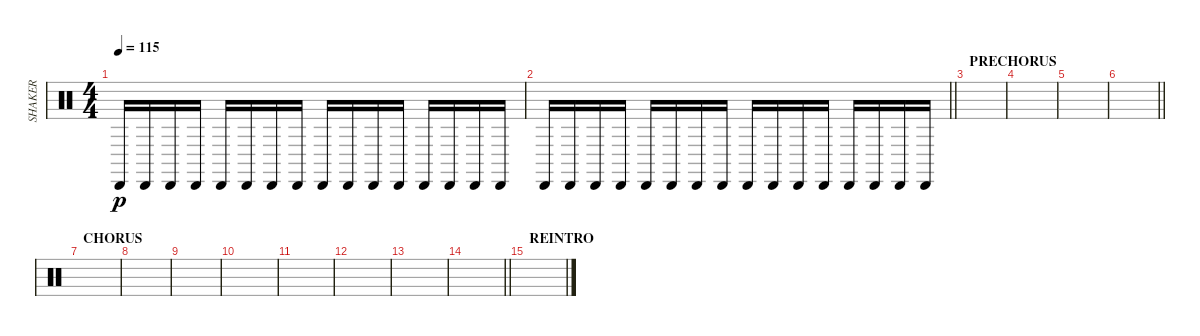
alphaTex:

\track ("SHAKER" "SHAKER") {instrument percussion}
\staff {score}
\articulation defaults
\ts (4 4)
\tempo 115
\clef neutral
\ks c "Cabasa (hit)".16{dy p} "Cabasa (hit)".16 "Cabasa (hit)".16 "Cabasa (hit)".16 "Cabasa (hit)".16 "Cabasa (hit)".16 "Cabasa (hit)".16 "Cabasa (hit)".16 "Cabasa (hit)".16 "Cabasa (hit)".16 "Cabasa (hit)".16 "Cabasa (hit)".16 "Cabasa (hit)".16 "Cabasa (hit)".16 "Cabasa (hit)".16 "Cabasa (hit)".16
|
\barLineRight lightlight "Cabasa (hit)".16 "Cabasa (hit)".16 "Cabasa (hit)".16 "Cabasa (hit)".16 "Cabasa (hit)".16 "Cabasa (hit)".16 "Cabasa (hit)".16 "Cabasa (hit)".16 "Cabasa (hit)".16 "Cabasa (hit)".16 "Cabasa (hit)".16 "Cabasa (hit)".16 "Cabasa (hit)".16 "Cabasa (hit)".16 "Cabasa (hit)".16 "Cabasa (hit)".16
|
\section ("" "PRECHORUS")
|
|
|
\barLineRight lightlight
|
\section ("" "CHORUS")
|
|
|
|
|
|
|
\barLineRight lightlight
|
\section ("" "REINTRO")
